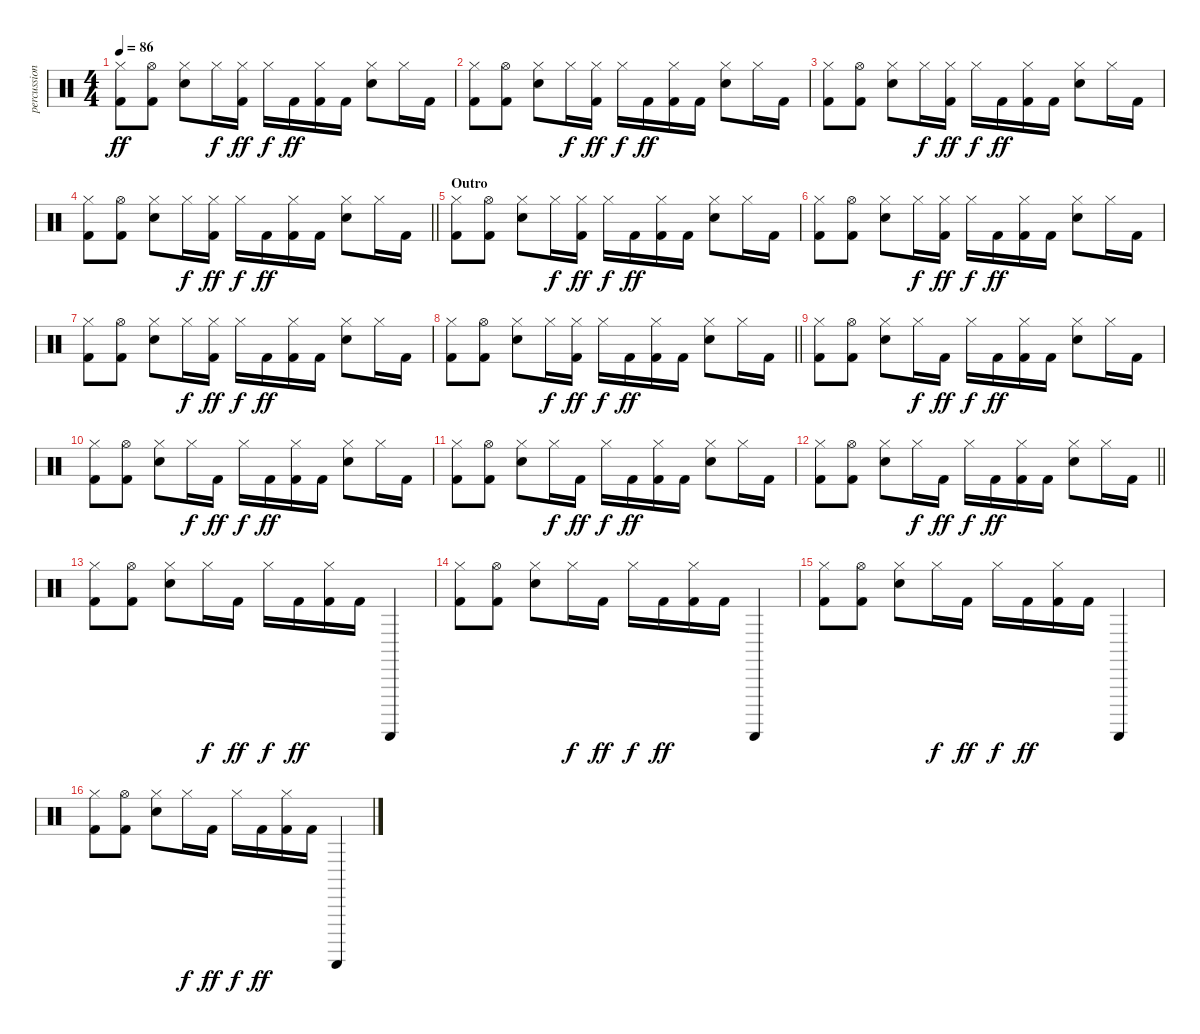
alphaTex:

\track ("percussion" "percussion") {instrument percussion}
\staff {score}
\articulation defaults
\ts (4 4)
\tempo 86
\clef neutral
\ks c
("Hi-Hat (closed)" "Kick (hit) 2").8{dy ff} ("Hi-Hat (open)" "Kick (hit) 2").8 ("Electric Snare (hit)" "Hi-Hat (closed)").8 "Hi-Hat (closed)".16{dy f} ("Hi-Hat (closed)" "Kick (hit) 2").16{dy ff} "Hi-Hat (closed)".16{dy f} "Kick (hit) 2".16{dy ff} ("Hi-Hat (closed)" "Kick (hit) 2").16 "Kick (hit) 2".16 ("Electric Snare (hit)" "Hi-Hat (closed)").8 "Hi-Hat (closed)".16 "Kick (hit) 2".16 |
("Hi-Hat (closed)" "Kick (hit) 2").8 ("Hi-Hat (open)" "Kick (hit) 2").8 ("Electric Snare (hit)" "Hi-Hat (closed)").8 "Hi-Hat (closed)".16{dy f} ("Hi-Hat (closed)" "Kick (hit) 2").16{dy ff} "Hi-Hat (closed)".16{dy f} "Kick (hit) 2".16{dy ff} ("Hi-Hat (closed)" "Kick (hit) 2").16 "Kick (hit) 2".16 ("Electric Snare (hit)" "Hi-Hat (closed)").8 "Hi-Hat (closed)".16 "Kick (hit) 2".16 |
("Hi-Hat (closed)" "Kick (hit) 2").8 ("Hi-Hat (open)" "Kick (hit) 2").8 ("Electric Snare (hit)" "Hi-Hat (closed)").8 "Hi-Hat (closed)".16{dy f} ("Hi-Hat (closed)" "Kick (hit) 2").16{dy ff} "Hi-Hat (closed)".16{dy f} "Kick (hit) 2".16{dy ff} ("Hi-Hat (closed)" "Kick (hit) 2").16 "Kick (hit) 2".16 ("Electric Snare (hit)" "Hi-Hat (closed)").8 "Hi-Hat (closed)".16 "Kick (hit) 2".16 |
\barLineRight lightlight
("Hi-Hat (closed)" "Kick (hit) 2").8 ("Hi-Hat (open)" "Kick (hit) 2").8 ("Electric Snare (hit)" "Hi-Hat (closed)").8 "Hi-Hat (closed)".16{dy f} ("Hi-Hat (closed)" "Kick (hit) 2").16{dy ff} "Hi-Hat (closed)".16{dy f} "Kick (hit) 2".16{dy ff} ("Hi-Hat (closed)" "Kick (hit) 2").16 "Kick (hit) 2".16 ("Electric Snare (hit)" "Hi-Hat (closed)").8 "Hi-Hat (closed)".16 "Kick (hit) 2".16 |
\section ("" "Outro")
("Hi-Hat (closed)" "Kick (hit) 2").8 ("Hi-Hat (open)" "Kick (hit) 2").8 ("Electric Snare (hit)" "Hi-Hat (closed)").8 "Hi-Hat (closed)".16{dy f} ("Hi-Hat (closed)" "Kick (hit) 2").16{dy ff} "Hi-Hat (closed)".16{dy f} "Kick (hit) 2".16{dy ff} ("Hi-Hat (closed)" "Kick (hit) 2").16 "Kick (hit) 2".16 ("Electric Snare (hit)" "Hi-Hat (closed)").8 "Hi-Hat (closed)".16 "Kick (hit) 2".16 |
("Hi-Hat (closed)" "Kick (hit) 2").8 ("Hi-Hat (open)" "Kick (hit) 2").8 ("Electric Snare (hit)" "Hi-Hat (closed)").8 "Hi-Hat (closed)".16{dy f} ("Hi-Hat (closed)" "Kick (hit) 2").16{dy ff} "Hi-Hat (closed)".16{dy f} "Kick (hit) 2".16{dy ff} ("Hi-Hat (closed)" "Kick (hit) 2").16 "Kick (hit) 2".16 ("Electric Snare (hit)" "Hi-Hat (closed)").8 "Hi-Hat (closed)".16 "Kick (hit) 2".16 |
("Hi-Hat (closed)" "Kick (hit) 2").8 ("Hi-Hat (open)" "Kick (hit) 2").8 ("Electric Snare (hit)" "Hi-Hat (closed)").8 "Hi-Hat (closed)".16{dy f} ("Hi-Hat (closed)" "Kick (hit) 2").16{dy ff} "Hi-Hat (closed)".16{dy f} "Kick (hit) 2".16{dy ff} ("Hi-Hat (closed)" "Kick (hit) 2").16 "Kick (hit) 2".16 ("Electric Snare (hit)" "Hi-Hat (closed)").8 "Hi-Hat (closed)".16 "Kick (hit) 2".16 |
\barLineRight lightlight
("Hi-Hat (closed)" "Kick (hit) 2").8 ("Hi-Hat (open)" "Kick (hit) 2").8 ("Electric Snare (hit)" "Hi-Hat (closed)").8 "Hi-Hat (closed)".16{dy f} ("Hi-Hat (closed)" "Kick (hit) 2").16{dy ff} "Hi-Hat (closed)".16{dy f} "Kick (hit) 2".16{dy ff} ("Hi-Hat (closed)" "Kick (hit) 2").16 "Kick (hit) 2".16 ("Electric Snare (hit)" "Hi-Hat (closed)").8 "Hi-Hat (closed)".16 "Kick (hit) 2".16 |
("Hi-Hat (closed)" "Kick (hit) 2").8 ("Hi-Hat (open)" "Kick (hit) 2").8 ("Electric Snare (hit)" "Hi-Hat (closed)").8 "Hi-Hat (closed)".16{dy f} "Kick (hit) 2".16{dy ff} "Hi-Hat (closed)".16{dy f} "Kick (hit) 2".16{dy ff} ("Hi-Hat (closed)" "Kick (hit) 2").16 "Kick (hit) 2".16 ("Electric Snare (hit)" "Hi-Hat (closed)").8 "Hi-Hat (closed)".16 "Kick (hit) 2".16 |
("Hi-Hat (closed)" "Kick (hit) 2").8 ("Hi-Hat (open)" "Kick (hit) 2").8 ("Electric Snare (hit)" "Hi-Hat (closed)").8 "Hi-Hat (closed)".16{dy f} "Kick (hit) 2".16{dy ff} "Hi-Hat (closed)".16{dy f} "Kick (hit) 2".16{dy ff} ("Hi-Hat (closed)" "Kick (hit) 2").16 "Kick (hit) 2".16 ("Electric Snare (hit)" "Hi-Hat (closed)").8 "Hi-Hat (closed)".16 "Kick (hit) 2".16 |
("Hi-Hat (closed)" "Kick (hit) 2").8 ("Hi-Hat (open)" "Kick (hit) 2").8 ("Electric Snare (hit)" "Hi-Hat (closed)").8 "Hi-Hat (closed)".16{dy f} "Kick (hit) 2".16{dy ff} "Hi-Hat (closed)".16{dy f} "Kick (hit) 2".16{dy ff} ("Hi-Hat (closed)" "Kick (hit) 2").16 "Kick (hit) 2".16 ("Electric Snare (hit)" "Hi-Hat (closed)").8 "Hi-Hat (closed)".16 "Kick (hit) 2".16 |
\barLineRight lightlight
("Hi-Hat (closed)" "Kick (hit) 2").8 ("Hi-Hat (open)" "Kick (hit) 2").8 ("Electric Snare (hit)" "Hi-Hat (closed)").8 "Hi-Hat (closed)".16{dy f} "Kick (hit) 2".16{dy ff} "Hi-Hat (closed)".16{dy f} "Kick (hit) 2".16{dy ff} ("Hi-Hat (closed)" "Kick (hit) 2").16 "Kick (hit) 2".16 ("Electric Snare (hit)" "Hi-Hat (closed)").8 "Hi-Hat (closed)".16 "Kick (hit) 2".16 |
("Hi-Hat (closed)" "Kick (hit) 2").8 ("Hi-Hat (open)" "Kick (hit) 2").8 ("Electric Snare (hit)" "Hi-Hat (closed)").8 "Hi-Hat (closed)".16{dy f} "Kick (hit) 2".16{dy ff} "Hi-Hat (closed)".16{dy f} "Kick (hit) 2".16{dy ff} ("Hi-Hat (closed)" "Kick (hit) 2").16 "Kick (hit) 2".16 "Guiro (scrap-return)".4 |
("Hi-Hat (closed)" "Kick (hit) 2").8 ("Hi-Hat (open)" "Kick (hit) 2").8 ("Electric Snare (hit)" "Hi-Hat (closed)").8 "Hi-Hat (closed)".16{dy f} "Kick (hit) 2".16{dy ff} "Hi-Hat (closed)".16{dy f} "Kick (hit) 2".16{dy ff} ("Hi-Hat (closed)" "Kick (hit) 2").16 "Kick (hit) 2".16 "Guiro (scrap-return)".4 |
("Hi-Hat (closed)" "Kick (hit) 2").8 ("Hi-Hat (open)" "Kick (hit) 2").8 ("Electric Snare (hit)" "Hi-Hat (closed)").8 "Hi-Hat (closed)".16{dy f} "Kick (hit) 2".16{dy ff} "Hi-Hat (closed)".16{dy f} "Kick (hit) 2".16{dy ff} ("Hi-Hat (closed)" "Kick (hit) 2").16 "Kick (hit) 2".16 "Guiro (scrap-return)".4 |
("Hi-Hat (closed)" "Kick (hit) 2").8 ("Hi-Hat (open)" "Kick (hit) 2").8 ("Electric Snare (hit)" "Hi-Hat (closed)").8 "Hi-Hat (closed)".16{dy f} "Kick (hit) 2".16{dy ff} "Hi-Hat (closed)".16{dy f} "Kick (hit) 2".16{dy ff} ("Hi-Hat (closed)" "Kick (hit) 2").16 "Kick (hit) 2".16 "Guiro (scrap-return)".4
